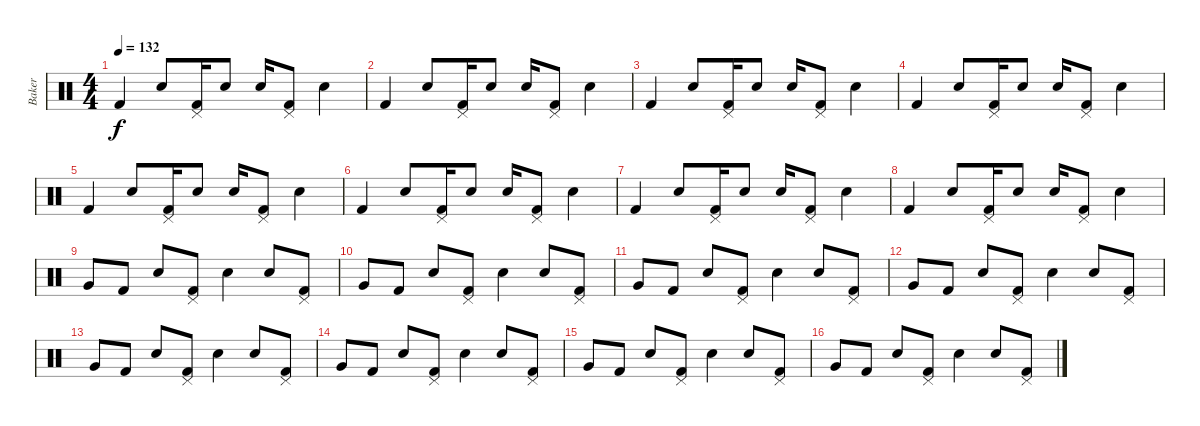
\track ("Baker" "Baker") {instrument percussion}
\staff {score}
\articulation defaults
\ts (4 4)
\tempo 132
\clef neutral
\ks c "Kick (hit) 2".4{dy f} "Snare (hit) 2".8
("Pedal Hi-Hat (hit)" "Kick (hit) 2").16 "Snare (hit) 2".8 "Snare (hit) 2".16 ("Pedal Hi-Hat (hit)" "Kick (hit) 2").8 "Snare (hit) 2".4 |
"Kick (hit) 2".4 "Snare (hit) 2".8 ("Pedal Hi-Hat (hit)" "Kick (hit) 2").16 "Snare (hit) 2".8 "Snare (hit) 2".16 ("Pedal Hi-Hat (hit)" "Kick (hit) 2").8 "Snare (hit) 2".4 |
"Kick (hit) 2".4 "Snare (hit) 2".8 ("Pedal Hi-Hat (hit)" "Kick (hit) 2").16 "Snare (hit) 2".8 "Snare (hit) 2".16 ("Pedal Hi-Hat (hit)" "Kick (hit) 2").8 "Snare (hit) 2".4 |
"Kick (hit) 2".4 "Snare (hit) 2".8 ("Pedal Hi-Hat (hit)" "Kick (hit) 2").16 "Snare (hit) 2".8 "Snare (hit) 2".16 ("Pedal Hi-Hat (hit)" "Kick (hit) 2").8 "Snare (hit) 2".4 |
"Kick (hit) 2".4 "Snare (hit) 2".8 ("Pedal Hi-Hat (hit)" "Kick (hit) 2").16 "Snare (hit) 2".8 "Snare (hit) 2".16 ("Pedal Hi-Hat (hit)" "Kick (hit) 2").8 "Snare (hit) 2".4 |
"Kick (hit) 2".4 "Snare (hit) 2".8 ("Pedal Hi-Hat (hit)" "Kick (hit) 2").16 "Snare (hit) 2".8 "Snare (hit) 2".16 ("Pedal Hi-Hat (hit)" "Kick (hit) 2").8 "Snare (hit) 2".4 |
"Kick (hit) 2".4 "Snare (hit) 2".8 ("Pedal Hi-Hat (hit)" "Kick (hit) 2").16 "Snare (hit) 2".8 "Snare (hit) 2".16 ("Pedal Hi-Hat (hit)" "Kick (hit) 2").8 "Snare (hit) 2".4 |
"Kick (hit) 2".4 "Snare (hit) 2".8 ("Pedal Hi-Hat (hit)" "Kick (hit) 2").16 "Snare (hit) 2".8 "Snare (hit) 2".16 ("Pedal Hi-Hat (hit)" "Kick (hit) 2").8 "Snare (hit) 2".4 |
"Very Low Tom (hit)".8 "Kick (hit) 2".8 "Snare (hit) 2".8 ("Pedal Hi-Hat (hit)" "Kick (hit) 2").8 "Snare (hit) 2".4 "Snare (hit) 2".8 ("Pedal Hi-Hat (hit)" "Kick (hit) 2").8 |
"Very Low Tom (hit)".8 "Kick (hit) 2".8 "Snare (hit) 2".8 ("Pedal Hi-Hat (hit)" "Kick (hit) 2").8 "Snare (hit) 2".4 "Snare (hit) 2".8 ("Pedal Hi-Hat (hit)" "Kick (hit) 2").8 |
"Very Low Tom (hit)".8 "Kick (hit) 2".8 "Snare (hit) 2".8 ("Pedal Hi-Hat (hit)" "Kick (hit) 2").8 "Snare (hit) 2".4 "Snare (hit) 2".8 ("Pedal Hi-Hat (hit)" "Kick (hit) 2").8 |
"Very Low Tom (hit)".8 "Kick (hit) 2".8 "Snare (hit) 2".8 ("Pedal Hi-Hat (hit)" "Kick (hit) 2").8 "Snare (hit) 2".4 "Snare (hit) 2".8 ("Pedal Hi-Hat (hit)" "Kick (hit) 2").8 |
"Very Low Tom (hit)".8 "Kick (hit) 2".8 "Snare (hit) 2".8 ("Pedal Hi-Hat (hit)" "Kick (hit) 2").8 "Snare (hit) 2".4 "Snare (hit) 2".8 ("Pedal Hi-Hat (hit)" "Kick (hit) 2").8 |
"Very Low Tom (hit)".8 "Kick (hit) 2".8 "Snare (hit) 2".8 ("Pedal Hi-Hat (hit)" "Kick (hit) 2").8 "Snare (hit) 2".4 "Snare (hit) 2".8 ("Pedal Hi-Hat (hit)" "Kick (hit) 2").8 |
"Very Low Tom (hit)".8 "Kick (hit) 2".8 "Snare (hit) 2".8 ("Pedal Hi-Hat (hit)" "Kick (hit) 2").8 "Snare (hit) 2".4 "Snare (hit) 2".8 ("Pedal Hi-Hat (hit)" "Kick (hit) 2").8 |
"Very Low Tom (hit)".8 "Kick (hit) 2".8 "Snare (hit) 2".8 ("Pedal Hi-Hat (hit)" "Kick (hit) 2").8 "Snare (hit) 2".4 "Snare (hit) 2".8 ("Pedal Hi-Hat (hit)" "Kick (hit) 2").8
